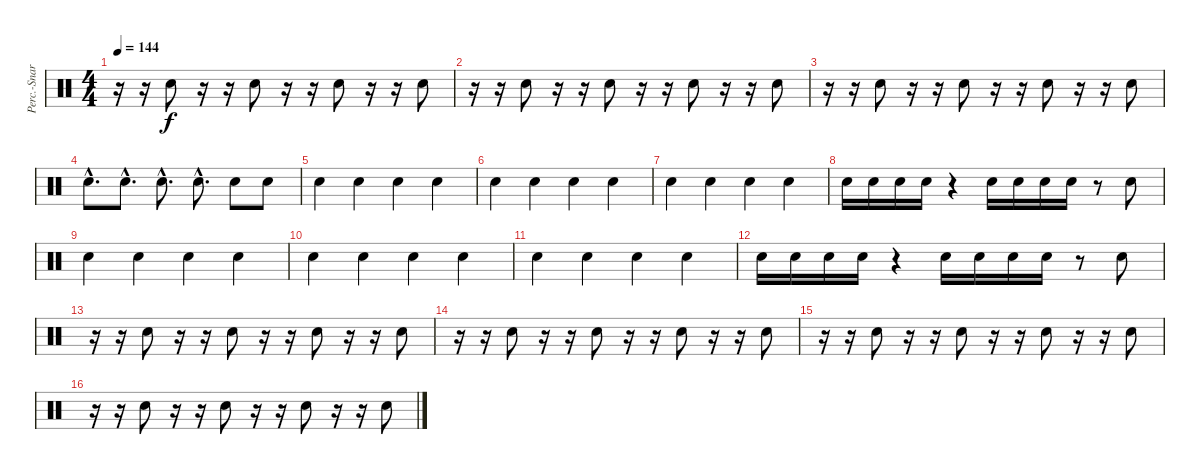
\track ("Perc.-Snare" "Perc.-Snar") {instrument percussion}
\staff {score}
\articulation defaults
\ts (4 4)
\tempo 144
\clef neutral
\ks c
r.16{dy f} r.16 "Snare (hit) 2".8 r.16 r.16 "Snare (hit) 2".8 r.16 r.16 "Snare (hit) 2".8 r.16 r.16 "Snare (hit) 2".8 |
r.16 r.16 "Snare (hit) 2".8 r.16 r.16 "Snare (hit) 2".8 r.16 r.16 "Snare (hit) 2".8 r.16 r.16 "Snare (hit) 2".8 |
r.16 r.16 "Snare (hit) 2".8 r.16 r.16 "Snare (hit) 2".8 r.16 r.16 "Snare (hit) 2".8 r.16 r.16 "Snare (hit) 2".8 |
"Snare (hit) 2"{hac}.8{d} "Snare (hit) 2"{hac}.8{d} "Snare (hit) 2"{hac}.8{d} "Snare (hit) 2"{hac}.8{d} "Snare (hit) 2".8 "Snare (hit) 2".8 |
"Snare (hit) 2".4 "Snare (hit) 2".4 "Snare (hit) 2".4 "Snare (hit) 2".4 |
"Snare (hit) 2".4 "Snare (hit) 2".4 "Snare (hit) 2".4 "Snare (hit) 2".4 |
"Snare (hit) 2".4 "Snare (hit) 2".4 "Snare (hit) 2".4 "Snare (hit) 2".4 |
"Snare (hit) 2".16 "Snare (hit) 2".16 "Snare (hit) 2".16 "Snare (hit) 2".16 r.4 "Snare (hit) 2".16 "Snare (hit) 2".16 "Snare (hit) 2".16 "Snare (hit) 2".16 r.8 "Snare (hit) 2".8 |
"Snare (hit) 2".4 "Snare (hit) 2".4 "Snare (hit) 2".4 "Snare (hit) 2".4 |
"Snare (hit) 2".4 "Snare (hit) 2".4 "Snare (hit) 2".4 "Snare (hit) 2".4 |
"Snare (hit) 2".4 "Snare (hit) 2".4 "Snare (hit) 2".4 "Snare (hit) 2".4 |
"Snare (hit) 2".16 "Snare (hit) 2".16 "Snare (hit) 2".16 "Snare (hit) 2".16 r.4 "Snare (hit) 2".16 "Snare (hit) 2".16 "Snare (hit) 2".16 "Snare (hit) 2".16 r.8 "Snare (hit) 2".8 |
r.16 r.16 "Snare (hit) 2".8 r.16 r.16 "Snare (hit) 2".8 r.16 r.16 "Snare (hit) 2".8 r.16 r.16 "Snare (hit) 2".8 |
r.16 r.16 "Snare (hit) 2".8 r.16 r.16 "Snare (hit) 2".8 r.16 r.16 "Snare (hit) 2".8 r.16 r.16 "Snare (hit) 2".8 |
r.16 r.16 "Snare (hit) 2".8 r.16 r.16 "Snare (hit) 2".8 r.16 r.16 "Snare (hit) 2".8 r.16 r.16 "Snare (hit) 2".8 |
r.16 r.16 "Snare (hit) 2".8 r.16 r.16 "Snare (hit) 2".8 r.16 r.16 "Snare (hit) 2".8 r.16 r.16 "Snare (hit) 2".8
